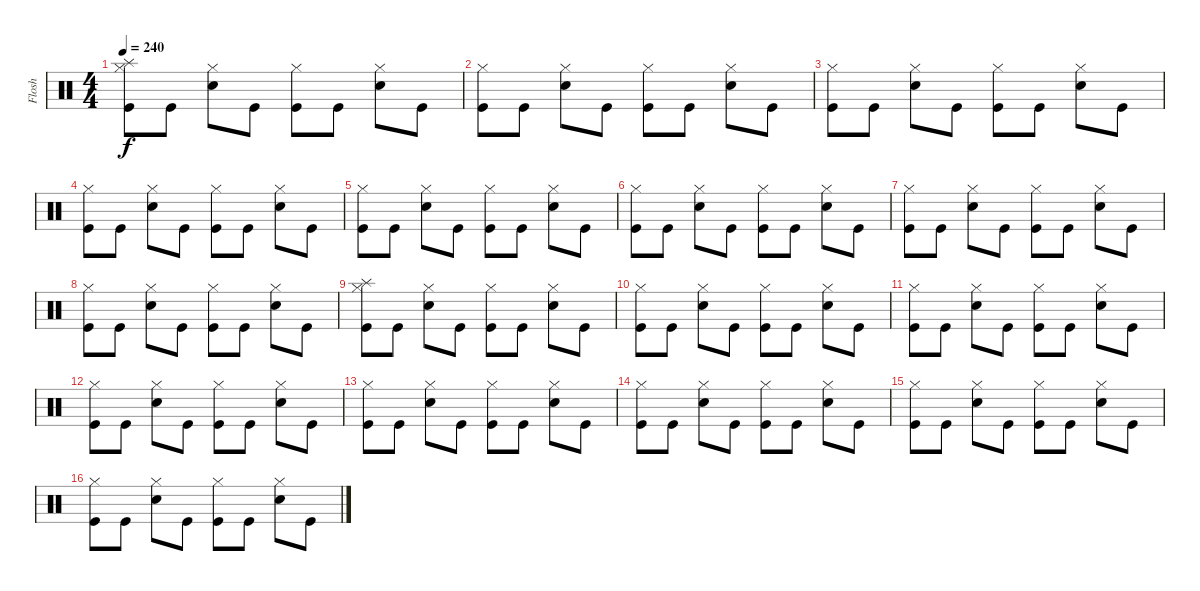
\track ("Flosh" "Flosh") {instrument percussion}
\staff {score}
\articulation defaults
\ts (4 4)
\tempo 240
\clef neutral
\ks c
("Splash (hit)" "Hi-Hat (closed)" "Kick (hit)").8{dy f} "Kick (hit)".8 ("Hi-Hat (closed)" "Snare (hit) 2").8 "Kick (hit)".8 ("Hi-Hat (closed)" "Kick (hit)").8 "Kick (hit)".8 ("Hi-Hat (closed)" "Snare (hit) 2").8 "Kick (hit)".8 |
("Hi-Hat (closed)" "Kick (hit)").8 "Kick (hit)".8 ("Hi-Hat (closed)" "Snare (hit) 2").8 "Kick (hit)".8 ("Hi-Hat (closed)" "Kick (hit)").8 "Kick (hit)".8 ("Hi-Hat (closed)" "Snare (hit) 2").8 "Kick (hit)".8 |
("Hi-Hat (closed)" "Kick (hit)").8 "Kick (hit)".8 ("Hi-Hat (closed)" "Snare (hit) 2").8 "Kick (hit)".8 ("Hi-Hat (closed)" "Kick (hit)").8 "Kick (hit)".8 ("Hi-Hat (closed)" "Snare (hit) 2").8 "Kick (hit)".8 |
("Hi-Hat (closed)" "Kick (hit)").8 "Kick (hit)".8 ("Hi-Hat (closed)" "Snare (hit) 2").8 "Kick (hit)".8 ("Hi-Hat (closed)" "Kick (hit)").8 "Kick (hit)".8 ("Hi-Hat (closed)" "Snare (hit) 2").8 "Kick (hit)".8 |
("Hi-Hat (closed)" "Kick (hit)").8 "Kick (hit)".8 ("Hi-Hat (closed)" "Snare (hit) 2").8 "Kick (hit)".8 ("Hi-Hat (closed)" "Kick (hit)").8 "Kick (hit)".8 ("Hi-Hat (closed)" "Snare (hit) 2").8 "Kick (hit)".8 |
("Hi-Hat (closed)" "Kick (hit)").8 "Kick (hit)".8 ("Hi-Hat (closed)" "Snare (hit) 2").8 "Kick (hit)".8 ("Hi-Hat (closed)" "Kick (hit)").8 "Kick (hit)".8 ("Hi-Hat (closed)" "Snare (hit) 2").8 "Kick (hit)".8 |
("Hi-Hat (closed)" "Kick (hit)").8 "Kick (hit)".8 ("Hi-Hat (closed)" "Snare (hit) 2").8 "Kick (hit)".8 ("Hi-Hat (closed)" "Kick (hit)").8 "Kick (hit)".8 ("Hi-Hat (closed)" "Snare (hit) 2").8 "Kick (hit)".8 |
("Hi-Hat (closed)" "Kick (hit)").8 "Kick (hit)".8 ("Hi-Hat (closed)" "Snare (hit) 2").8 "Kick (hit)".8 ("Hi-Hat (closed)" "Kick (hit)").8 "Kick (hit)".8 ("Hi-Hat (closed)" "Snare (hit) 2").8 "Kick (hit)".8 |
("Splash (hit)" "Hi-Hat (closed)" "Kick (hit)").8 "Kick (hit)".8 ("Hi-Hat (closed)" "Snare (hit) 2").8 "Kick (hit)".8 ("Hi-Hat (closed)" "Kick (hit)").8 "Kick (hit)".8 ("Hi-Hat (closed)" "Snare (hit) 2").8 "Kick (hit)".8 |
("Hi-Hat (closed)" "Kick (hit)").8 "Kick (hit)".8 ("Hi-Hat (closed)" "Snare (hit) 2").8 "Kick (hit)".8 ("Hi-Hat (closed)" "Kick (hit)").8 "Kick (hit)".8 ("Hi-Hat (closed)" "Snare (hit) 2").8 "Kick (hit)".8 |
("Hi-Hat (closed)" "Kick (hit)").8 "Kick (hit)".8 ("Hi-Hat (closed)" "Snare (hit) 2").8 "Kick (hit)".8 ("Hi-Hat (closed)" "Kick (hit)").8 "Kick (hit)".8 ("Hi-Hat (closed)" "Snare (hit) 2").8 "Kick (hit)".8 |
("Hi-Hat (closed)" "Kick (hit)").8 "Kick (hit)".8 ("Hi-Hat (closed)" "Snare (hit) 2").8 "Kick (hit)".8 ("Hi-Hat (closed)" "Kick (hit)").8 "Kick (hit)".8 ("Hi-Hat (closed)" "Snare (hit) 2").8 "Kick (hit)".8 |
("Hi-Hat (closed)" "Kick (hit)").8 "Kick (hit)".8 ("Hi-Hat (closed)" "Snare (hit) 2").8 "Kick (hit)".8 ("Hi-Hat (closed)" "Kick (hit)").8 "Kick (hit)".8 ("Hi-Hat (closed)" "Snare (hit) 2").8 "Kick (hit)".8 |
("Hi-Hat (closed)" "Kick (hit)").8 "Kick (hit)".8 ("Hi-Hat (closed)" "Snare (hit) 2").8 "Kick (hit)".8 ("Hi-Hat (closed)" "Kick (hit)").8 "Kick (hit)".8 ("Hi-Hat (closed)" "Snare (hit) 2").8 "Kick (hit)".8 |
("Hi-Hat (closed)" "Kick (hit)").8 "Kick (hit)".8 ("Hi-Hat (closed)" "Snare (hit) 2").8 "Kick (hit)".8 ("Hi-Hat (closed)" "Kick (hit)").8 "Kick (hit)".8 ("Hi-Hat (closed)" "Snare (hit) 2").8 "Kick (hit)".8 |
("Hi-Hat (closed)" "Kick (hit)").8 "Kick (hit)".8 ("Hi-Hat (closed)" "Snare (hit) 2").8 "Kick (hit)".8 ("Hi-Hat (closed)" "Kick (hit)").8 "Kick (hit)".8 ("Hi-Hat (closed)" "Snare (hit) 2").8 "Kick (hit)".8
